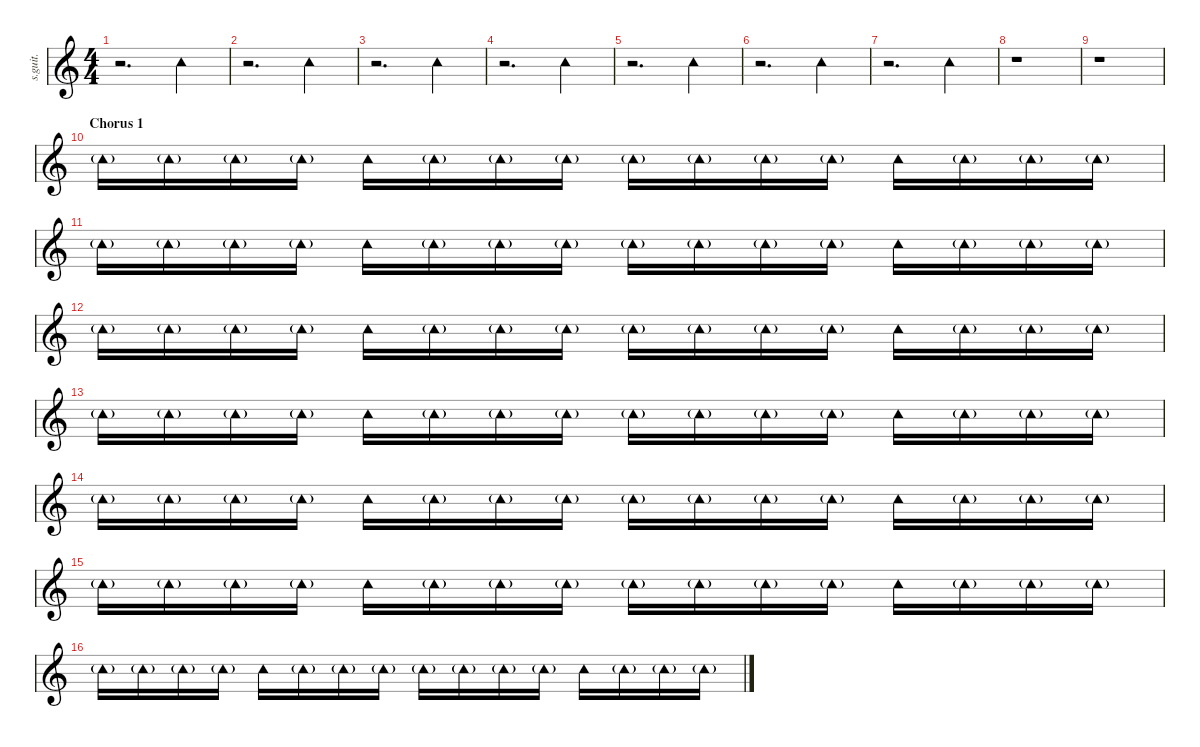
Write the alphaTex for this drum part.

\defaultSystemsLayout 4
\hideDynamics
\bracketExtendMode nobrackets
\track ("Tambourine" "s.guit.") {instrument percussion}
\staff {score}
\articulation defaults
\ts (4 4)
\tempo (136 hide)
\clef g2
\ks c
r.2{d dy f} "Tambourine (hit)".4 |
r.2{d} "Tambourine (hit)".4 |
r.2{d} "Tambourine (hit)".4 |
r.2{d} "Tambourine (hit)".4 |
r.2{d} "Tambourine (hit)".4 |
r.2{d} "Tambourine (hit)".4 |
r.2{d} "Tambourine (hit)".4 |
r.1 |
r.1 |
\section ("" "Chorus 1")
"Tambourine (hit)"{g}.16{dy pp} "Tambourine (hit)"{g}.16 "Tambourine (hit)"{g}.16 "Tambourine (hit)"{g}.16 "Tambourine (hit)".16{dy mp} "Tambourine (hit)"{g}.16{dy pp} "Tambourine (hit)"{g}.16 "Tambourine (hit)"{g}.16 "Tambourine (hit)"{g}.16 "Tambourine (hit)"{g}.16 "Tambourine (hit)"{g}.16 "Tambourine (hit)"{g}.16 "Tambourine (hit)".16{dy mp} "Tambourine (hit)"{g}.16{dy pp} "Tambourine (hit)"{g}.16 "Tambourine (hit)"{g}.16 |
"Tambourine (hit)"{g}.16 "Tambourine (hit)"{g}.16 "Tambourine (hit)"{g}.16 "Tambourine (hit)"{g}.16 "Tambourine (hit)".16{dy mp} "Tambourine (hit)"{g}.16{dy pp} "Tambourine (hit)"{g}.16 "Tambourine (hit)"{g}.16 "Tambourine (hit)"{g}.16 "Tambourine (hit)"{g}.16 "Tambourine (hit)"{g}.16 "Tambourine (hit)"{g}.16 "Tambourine (hit)".16{dy mp} "Tambourine (hit)"{g}.16{dy pp} "Tambourine (hit)"{g}.16 "Tambourine (hit)"{g}.16 |
"Tambourine (hit)"{g}.16 "Tambourine (hit)"{g}.16 "Tambourine (hit)"{g}.16 "Tambourine (hit)"{g}.16 "Tambourine (hit)".16{dy mp} "Tambourine (hit)"{g}.16{dy pp} "Tambourine (hit)"{g}.16 "Tambourine (hit)"{g}.16 "Tambourine (hit)"{g}.16 "Tambourine (hit)"{g}.16 "Tambourine (hit)"{g}.16 "Tambourine (hit)"{g}.16 "Tambourine (hit)".16{dy mp} "Tambourine (hit)"{g}.16{dy pp} "Tambourine (hit)"{g}.16 "Tambourine (hit)"{g}.16 |
"Tambourine (hit)"{g}.16 "Tambourine (hit)"{g}.16 "Tambourine (hit)"{g}.16 "Tambourine (hit)"{g}.16 "Tambourine (hit)".16{dy mp} "Tambourine (hit)"{g}.16{dy pp} "Tambourine (hit)"{g}.16 "Tambourine (hit)"{g}.16 "Tambourine (hit)"{g}.16 "Tambourine (hit)"{g}.16 "Tambourine (hit)"{g}.16 "Tambourine (hit)"{g}.16 "Tambourine (hit)".16{dy mp} "Tambourine (hit)"{g}.16{dy pp} "Tambourine (hit)"{g}.16 "Tambourine (hit)"{g}.16 |
"Tambourine (hit)"{g}.16 "Tambourine (hit)"{g}.16 "Tambourine (hit)"{g}.16 "Tambourine (hit)"{g}.16 "Tambourine (hit)".16{dy mp} "Tambourine (hit)"{g}.16{dy pp} "Tambourine (hit)"{g}.16 "Tambourine (hit)"{g}.16 "Tambourine (hit)"{g}.16 "Tambourine (hit)"{g}.16 "Tambourine (hit)"{g}.16 "Tambourine (hit)"{g}.16 "Tambourine (hit)".16{dy mp} "Tambourine (hit)"{g}.16{dy pp} "Tambourine (hit)"{g}.16 "Tambourine (hit)"{g}.16 |
"Tambourine (hit)"{g}.16 "Tambourine (hit)"{g}.16 "Tambourine (hit)"{g}.16 "Tambourine (hit)"{g}.16 "Tambourine (hit)".16{dy mp} "Tambourine (hit)"{g}.16{dy pp} "Tambourine (hit)"{g}.16 "Tambourine (hit)"{g}.16 "Tambourine (hit)"{g}.16 "Tambourine (hit)"{g}.16 "Tambourine (hit)"{g}.16 "Tambourine (hit)"{g}.16 "Tambourine (hit)".16{dy mp} "Tambourine (hit)"{g}.16{dy pp} "Tambourine (hit)"{g}.16 "Tambourine (hit)"{g}.16 |
"Tambourine (hit)"{g}.16 "Tambourine (hit)"{g}.16 "Tambourine (hit)"{g}.16 "Tambourine (hit)"{g}.16 "Tambourine (hit)".16{dy mp} "Tambourine (hit)"{g}.16{dy pp} "Tambourine (hit)"{g}.16 "Tambourine (hit)"{g}.16 "Tambourine (hit)"{g}.16 "Tambourine (hit)"{g}.16 "Tambourine (hit)"{g}.16 "Tambourine (hit)"{g}.16 "Tambourine (hit)".16{dy mp} "Tambourine (hit)"{g}.16{dy pp} "Tambourine (hit)"{g}.16 "Tambourine (hit)"{g}.16
